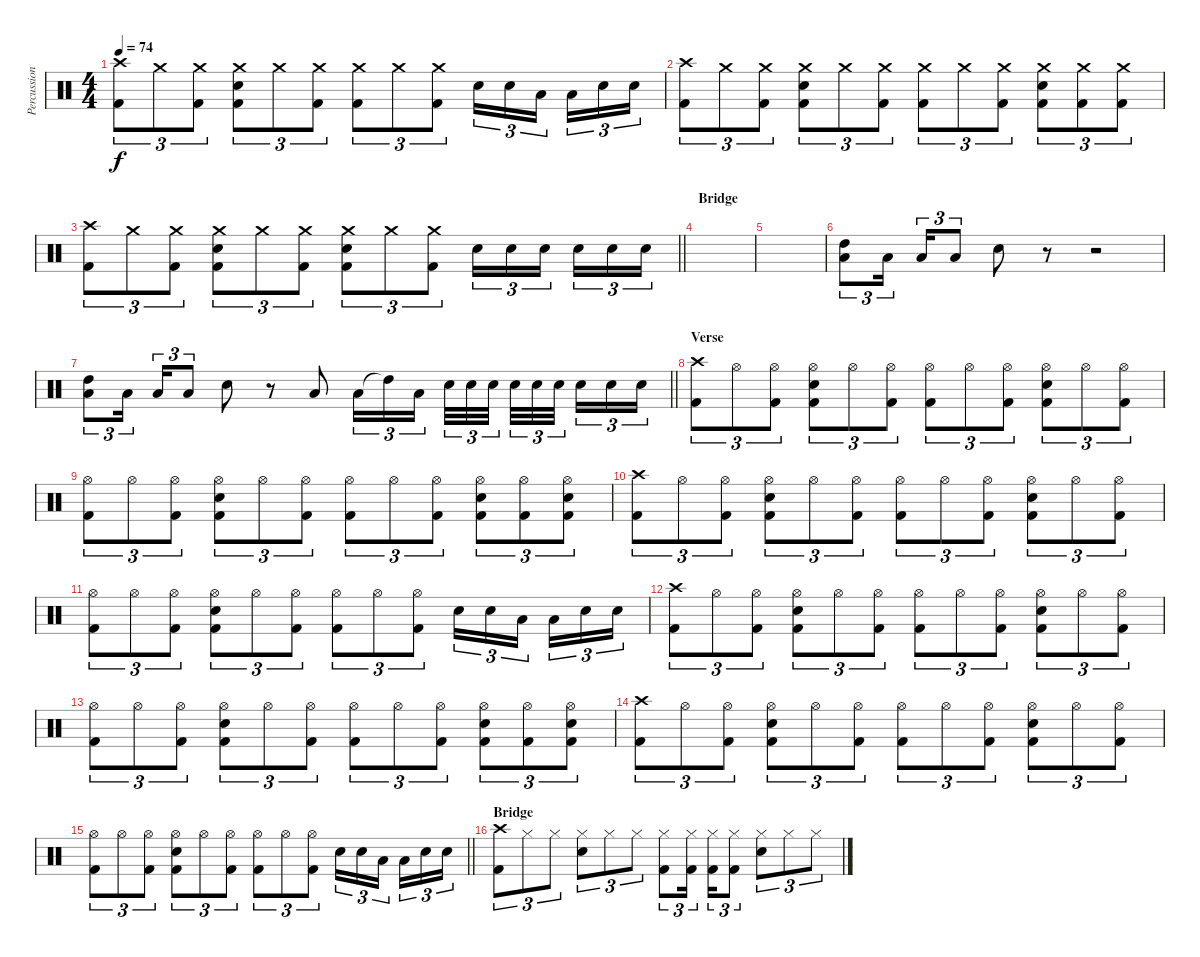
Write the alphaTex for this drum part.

\track ("Percussioni" "Percussion") {instrument percussion}
\staff {score}
\articulation defaults
\ts (4 4)
\tempo 74
\clef neutral
\ks c
("Crash high (hit)" "Kick (hit) 2").8{tu (3 2) dy f} "Crash medium (hit)".8{tu (3 2)} ("Crash medium (hit)" "Kick (hit) 2").8{tu (3 2)} ("Crash medium (hit)" "Snare (hit) 2" "Kick (hit) 2").8{tu (3 2)} "Crash medium (hit)".8{tu (3 2)} ("Crash medium (hit)" "Kick (hit) 2").8{tu (3 2)} ("Crash medium (hit)" "Kick (hit) 2").8{tu (3 2)} "Crash medium (hit)".8{tu (3 2)} ("Crash medium (hit)" "Kick (hit) 2").8{tu (3 2)} "Snare (hit) 2".16{tu (3 2)} "Snare (hit) 2".16{tu (3 2)} "Low Tom (hit)".16{tu (3 2) beam splitsecondary} "Low Tom (hit)".16{tu (3 2)} "Snare (hit) 2".16{tu (3 2)} "Snare (hit) 2".16{tu (3 2)} |
("Crash high (hit)" "Kick (hit) 2").8{tu (3 2)} "Crash medium (hit)".8{tu (3 2)} ("Crash medium (hit)" "Kick (hit) 2").8{tu (3 2)} ("Crash medium (hit)" "Snare (hit) 2" "Kick (hit) 2").8{tu (3 2)} "Crash medium (hit)".8{tu (3 2)} ("Crash medium (hit)" "Kick (hit) 2").8{tu (3 2)} ("Crash medium (hit)" "Kick (hit) 2").8{tu (3 2)} "Crash medium (hit)".8{tu (3 2)} ("Crash medium (hit)" "Kick (hit) 2").8{tu (3 2)} ("Crash medium (hit)" "Snare (hit) 2" "Kick (hit) 2").8{tu (3 2)} ("Crash medium (hit)" "Kick (hit) 2").8{tu (3 2)} ("Crash medium (hit)" "Kick (hit) 2").8{tu (3 2)} |
\barLineRight lightlight
("Crash high (hit)" "Kick (hit) 2").8{tu (3 2)} "Crash medium (hit)".8{tu (3 2)} ("Crash medium (hit)" "Kick (hit) 2").8{tu (3 2)} ("Crash medium (hit)" "Snare (hit) 2" "Kick (hit) 2").8{tu (3 2)} "Crash medium (hit)".8{tu (3 2)} ("Crash medium (hit)" "Kick (hit) 2").8{tu (3 2)} ("Crash medium (hit)" "Snare (hit) 2" "Kick (hit) 2").8{tu (3 2)} "Crash medium (hit)".8{tu (3 2)} ("Crash medium (hit)" "Kick (hit) 2").8{tu (3 2)} "Snare (hit) 2".16{tu (3 2)} "Snare (hit) 2".16{tu (3 2)} "Snare (hit) 2".16{tu (3 2) beam splitsecondary} "Snare (hit) 2".16{tu (3 2)} "Snare (hit) 2".16{tu (3 2)} "Snare (hit) 2".16{tu (3 2)} |
\section ("" "Bridge")
|
|
("High Tom (hit)" "Low Tom (hit)").8{tu (3 2)} "Low Tom (hit)".16{tu (3 2) beam splitsecondary} "Low Tom (hit)".16{tu (3 2)} "Low Floor Tom (hit)".8{tu (3 2)} "Snare (hit) 2".8 r.8 r.2 |
\barLineRight lightlight
("High Tom (hit)" "Low Tom (hit)").8{tu (3 2)} "Low Tom (hit)".16{tu (3 2) beam splitsecondary} "Low Tom (hit)".16{tu (3 2)} "Low Floor Tom (hit)".8{tu (3 2)} "Snare (hit) 2".8 r.8 "Low Tom (hit)".8 "Low Tom (hit)".16{tu (3 2)} "High Tom (hit)"{t}.16{tu (3 2)} "Low Floor Tom (hit)".16{tu (3 2)} "Snare (hit) 2".32{tu (3 2)} "Snare (hit) 2".32{tu (3 2)} "Snare (hit) 2".32{tu (3 2) beam splitsecondary} "Snare (hit) 2".32{tu (3 2)} "Snare (hit) 2".32{tu (3 2)} "Snare (hit) 2".32{tu (3 2) beam splitsecondary} "Snare (hit) 2".16{tu (3 2)} "Snare (hit) 2".16{tu (3 2)} "Snare (hit) 2".16{tu (3 2)} |
\section ("" "Verse")
("Crash high (hit)" "Kick (hit) 2").8{tu (3 2)} "Hi-Hat (open)".8{tu (3 2)} ("Hi-Hat (open)" "Kick (hit) 2").8{tu (3 2)} ("Hi-Hat (open)" "Snare (hit) 2" "Kick (hit) 2").8{tu (3 2)} "Hi-Hat (open)".8{tu (3 2)} ("Hi-Hat (open)" "Kick (hit) 2").8{tu (3 2)} ("Hi-Hat (open)" "Kick (hit) 2").8{tu (3 2)} "Hi-Hat (open)".8{tu (3 2)} ("Hi-Hat (open)" "Kick (hit) 2").8{tu (3 2)} ("Hi-Hat (open)" "Snare (hit) 2" "Kick (hit) 2").8{tu (3 2)} "Hi-Hat (open)".8{tu (3 2)} ("Hi-Hat (open)" "Kick (hit) 2").8{tu (3 2)} |
("Hi-Hat (open)" "Kick (hit) 2").8{tu (3 2)} "Hi-Hat (open)".8{tu (3 2)} ("Hi-Hat (open)" "Kick (hit) 2").8{tu (3 2)} ("Hi-Hat (open)" "Snare (hit) 2" "Kick (hit) 2").8{tu (3 2)} "Hi-Hat (open)".8{tu (3 2)} ("Hi-Hat (open)" "Kick (hit) 2").8{tu (3 2)} ("Hi-Hat (open)" "Kick (hit) 2").8{tu (3 2)} "Hi-Hat (open)".8{tu (3 2)} ("Hi-Hat (open)" "Kick (hit) 2").8{tu (3 2)} ("Hi-Hat (open)" "Snare (hit) 2" "Kick (hit) 2").8{tu (3 2)} ("Hi-Hat (open)" "Kick (hit) 2").8{tu (3 2)} ("Hi-Hat (open)" "Snare (hit) 2" "Kick (hit) 2").8{tu (3 2)} |
("Crash high (hit)" "Kick (hit) 2").8{tu (3 2)} "Hi-Hat (open)".8{tu (3 2)} ("Hi-Hat (open)" "Kick (hit) 2").8{tu (3 2)} ("Hi-Hat (open)" "Snare (hit) 2" "Kick (hit) 2").8{tu (3 2)} "Hi-Hat (open)".8{tu (3 2)} ("Hi-Hat (open)" "Kick (hit) 2").8{tu (3 2)} ("Hi-Hat (open)" "Kick (hit) 2").8{tu (3 2)} "Hi-Hat (open)".8{tu (3 2)} ("Hi-Hat (open)" "Kick (hit) 2").8{tu (3 2)} ("Hi-Hat (open)" "Snare (hit) 2" "Kick (hit) 2").8{tu (3 2)} "Hi-Hat (open)".8{tu (3 2)} ("Hi-Hat (open)" "Kick (hit) 2").8{tu (3 2)} |
("Hi-Hat (open)" "Kick (hit) 2").8{tu (3 2)} "Hi-Hat (open)".8{tu (3 2)} ("Hi-Hat (open)" "Kick (hit) 2").8{tu (3 2)} ("Hi-Hat (open)" "Snare (hit) 2" "Kick (hit) 2").8{tu (3 2)} "Hi-Hat (open)".8{tu (3 2)} ("Hi-Hat (open)" "Kick (hit) 2").8{tu (3 2)} ("Hi-Hat (open)" "Kick (hit) 2").8{tu (3 2)} "Hi-Hat (open)".8{tu (3 2)} ("Hi-Hat (open)" "Kick (hit) 2").8{tu (3 2)} "Snare (hit) 2".16{tu (3 2)} "Snare (hit) 2".16{tu (3 2)} "Low Tom (hit)".16{tu (3 2) beam splitsecondary} "Low Tom (hit)".16{tu (3 2)} "Snare (hit) 2".16{tu (3 2)} "Snare (hit) 2".16{tu (3 2)} |
("Crash high (hit)" "Kick (hit) 2").8{tu (3 2)} "Hi-Hat (open)".8{tu (3 2)} ("Hi-Hat (open)" "Kick (hit) 2").8{tu (3 2)} ("Hi-Hat (open)" "Snare (hit) 2" "Kick (hit) 2").8{tu (3 2)} "Hi-Hat (open)".8{tu (3 2)} ("Hi-Hat (open)" "Kick (hit) 2").8{tu (3 2)} ("Hi-Hat (open)" "Kick (hit) 2").8{tu (3 2)} "Hi-Hat (open)".8{tu (3 2)} ("Hi-Hat (open)" "Kick (hit) 2").8{tu (3 2)} ("Hi-Hat (open)" "Snare (hit) 2" "Kick (hit) 2").8{tu (3 2)} "Hi-Hat (open)".8{tu (3 2)} ("Hi-Hat (open)" "Kick (hit) 2").8{tu (3 2)} |
("Hi-Hat (open)" "Kick (hit) 2").8{tu (3 2)} "Hi-Hat (open)".8{tu (3 2)} ("Hi-Hat (open)" "Kick (hit) 2").8{tu (3 2)} ("Hi-Hat (open)" "Snare (hit) 2" "Kick (hit) 2").8{tu (3 2)} "Hi-Hat (open)".8{tu (3 2)} ("Hi-Hat (open)" "Kick (hit) 2").8{tu (3 2)} ("Hi-Hat (open)" "Kick (hit) 2").8{tu (3 2)} "Hi-Hat (open)".8{tu (3 2)} ("Hi-Hat (open)" "Kick (hit) 2").8{tu (3 2)} ("Hi-Hat (open)" "Snare (hit) 2" "Kick (hit) 2").8{tu (3 2)} ("Hi-Hat (open)" "Kick (hit) 2").8{tu (3 2)} ("Hi-Hat (open)" "Snare (hit) 2" "Kick (hit) 2").8{tu (3 2)} |
("Crash high (hit)" "Kick (hit) 2").8{tu (3 2)} "Hi-Hat (open)".8{tu (3 2)} ("Hi-Hat (open)" "Kick (hit) 2").8{tu (3 2)} ("Hi-Hat (open)" "Snare (hit) 2" "Kick (hit) 2").8{tu (3 2)} "Hi-Hat (open)".8{tu (3 2)} ("Hi-Hat (open)" "Kick (hit) 2").8{tu (3 2)} ("Hi-Hat (open)" "Kick (hit) 2").8{tu (3 2)} "Hi-Hat (open)".8{tu (3 2)} ("Hi-Hat (open)" "Kick (hit) 2").8{tu (3 2)} ("Hi-Hat (open)" "Snare (hit) 2" "Kick (hit) 2").8{tu (3 2)} "Hi-Hat (open)".8{tu (3 2)} ("Hi-Hat (open)" "Kick (hit) 2").8{tu (3 2)} |
\barLineRight lightlight
("Hi-Hat (open)" "Kick (hit) 2").8{tu (3 2)} "Hi-Hat (open)".8{tu (3 2)} ("Hi-Hat (open)" "Kick (hit) 2").8{tu (3 2)} ("Hi-Hat (open)" "Snare (hit) 2" "Kick (hit) 2").8{tu (3 2)} "Hi-Hat (open)".8{tu (3 2)} ("Hi-Hat (open)" "Kick (hit) 2").8{tu (3 2)} ("Hi-Hat (open)" "Kick (hit) 2").8{tu (3 2)} "Hi-Hat (open)".8{tu (3 2)} ("Hi-Hat (open)" "Kick (hit) 2").8{tu (3 2)} "Snare (hit) 2".16{tu (3 2)} "Snare (hit) 2".16{tu (3 2)} "Low Tom (hit)".16{tu (3 2) beam splitsecondary} "Low Tom (hit)".16{tu (3 2)} "Snare (hit) 2".16{tu (3 2)} "Snare (hit) 2".16{tu (3 2)} |
\section ("" "Bridge")
("Crash high (hit)" "Kick (hit) 2").8{tu (3 2)} "Hi-Hat (closed)".8{tu (3 2)} "Hi-Hat (closed)".8{tu (3 2)} ("Hi-Hat (closed)" "Snare (hit) 2").8{tu (3 2)} "Hi-Hat (closed)".8{tu (3 2)} "Hi-Hat (closed)".8{tu (3 2)} ("Hi-Hat (closed)" "Kick (hit) 2").8{tu (3 2)} ("Hi-Hat (closed)" "Kick (hit) 2").16{tu (3 2) beam splitsecondary} ("Hi-Hat (closed)" "Kick (hit) 2").16{tu (3 2)} ("Hi-Hat (closed)" "Kick (hit) 2").8{tu (3 2)} ("Hi-Hat (closed)" "Snare (hit) 2").8{tu (3 2)} "Hi-Hat (closed)".8{tu (3 2)} "Hi-Hat (closed)".8{tu (3 2)}
